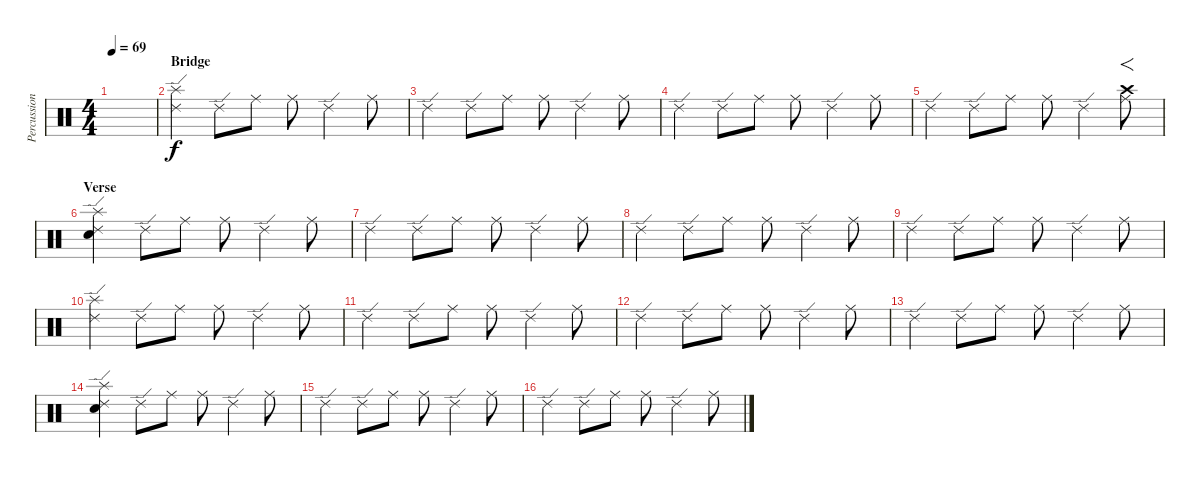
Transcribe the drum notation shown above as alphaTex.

\track ("Percussion" "Percussion") {instrument percussion}
\staff {score}
\articulation defaults
\ts (4 4)
\tempo 69
\clef neutral
\ks c
|
\section ("" "Bridge")
("Ride (edge) 2" "Splash (hit)").4{volume 13} "Ride (edge) 2".8 "Ride (middle)".8 "Ride (middle)".8 "Ride (edge) 2".4 "Ride (middle)".8 |
"Ride (edge) 2".4 "Ride (edge) 2".8 "Ride (middle)".8 "Ride (middle)".8 "Ride (edge) 2".4 "Ride (middle)".8 |
"Ride (edge) 2".4 "Ride (edge) 2".8 "Ride (middle)".8 "Ride (middle)".8 "Ride (edge) 2".4 "Ride (middle)".8 |
"Ride (edge) 2".4 "Ride (edge) 2".8 "Ride (middle)".8 "Ride (middle)".8 "Ride (edge) 2".4 ("Ride (middle)" "Crash high (hit)").8{f} |
\section ("" "Verse")
("Ride (edge) 2" "Splash (hit)" "Snare (hit)").4 "Ride (edge) 2".8 "Ride (middle)".8 "Ride (middle)".8 "Ride (edge) 2".4 "Ride (middle)".8 |
"Ride (edge) 2".4 "Ride (edge) 2".8 "Ride (middle)".8 "Ride (middle)".8 "Ride (edge) 2".4 "Ride (middle)".8 |
"Ride (edge) 2".4 "Ride (edge) 2".8 "Ride (middle)".8 "Ride (middle)".8 "Ride (edge) 2".4 "Ride (middle)".8 |
"Ride (edge) 2".4 "Ride (edge) 2".8 "Ride (middle)".8 "Ride (middle)".8 "Ride (edge) 2".4 "Ride (middle)".8 |
("Ride (edge) 2" "Splash (hit)").4 "Ride (edge) 2".8 "Ride (middle)".8 "Ride (middle)".8 "Ride (edge) 2".4 "Ride (middle)".8 |
"Ride (edge) 2".4 "Ride (edge) 2".8 "Ride (middle)".8 "Ride (middle)".8 "Ride (edge) 2".4 "Ride (middle)".8 |
"Ride (edge) 2".4 "Ride (edge) 2".8 "Ride (middle)".8 "Ride (middle)".8 "Ride (edge) 2".4 "Ride (middle)".8 |
"Ride (edge) 2".4 "Ride (edge) 2".8 "Ride (middle)".8 "Ride (middle)".8 "Ride (edge) 2".4 "Ride (middle)".8 |
("Ride (edge) 2" "Splash (hit)" "Snare (hit)").4 "Ride (edge) 2".8 "Ride (middle)".8 "Ride (middle)".8 "Ride (edge) 2".4 "Ride (middle)".8 |
"Ride (edge) 2".4 "Ride (edge) 2".8 "Ride (middle)".8 "Ride (middle)".8 "Ride (edge) 2".4 "Ride (middle)".8 |
"Ride (edge) 2".4 "Ride (edge) 2".8 "Ride (middle)".8 "Ride (middle)".8 "Ride (edge) 2".4 "Ride (middle)".8
